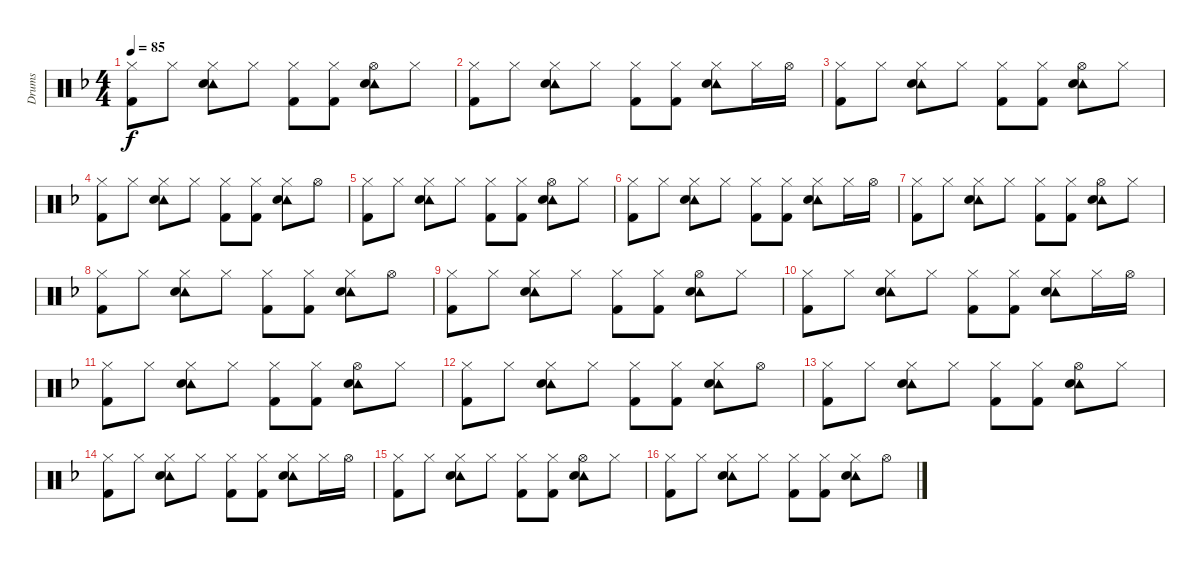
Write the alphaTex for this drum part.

\track ("Drums" "Drums") {instrument percussion}
\staff
\articulation defaults
\ts (4 4)
\tempo 85
\clef neutral
\ks f
("Hi-Hat (closed)" "Kick (hit) 2").8{dy f} "Hi-Hat (closed)".8 ("Tambourine (hit)" "Hi-Hat (closed)" "Snare (hit) 2").8 "Hi-Hat (closed)".8 ("Hi-Hat (closed)" "Kick (hit) 2").8 ("Hi-Hat (closed)" "Kick (hit) 2").8 ("Tambourine (hit)" "Hi-Hat (open)" "Snare (hit) 2").8 "Hi-Hat (closed)".8 |
("Hi-Hat (closed)" "Kick (hit) 2").8 "Hi-Hat (closed)".8 ("Tambourine (hit)" "Hi-Hat (closed)" "Snare (hit) 2").8 "Hi-Hat (closed)".8 ("Hi-Hat (closed)" "Kick (hit) 2").8 ("Hi-Hat (closed)" "Kick (hit) 2").8 ("Tambourine (hit)" "Hi-Hat (closed)" "Snare (hit) 2").8 "Hi-Hat (closed)".16 "Hi-Hat (open)".16 |
("Hi-Hat (closed)" "Kick (hit) 2").8 "Hi-Hat (closed)".8 ("Tambourine (hit)" "Hi-Hat (closed)" "Snare (hit) 2").8 "Hi-Hat (closed)".8 ("Hi-Hat (closed)" "Kick (hit) 2").8 ("Hi-Hat (closed)" "Kick (hit) 2").8 ("Tambourine (hit)" "Hi-Hat (open)" "Snare (hit) 2").8 "Hi-Hat (closed)".8 |
("Hi-Hat (closed)" "Kick (hit) 2").8 "Hi-Hat (closed)".8 ("Tambourine (hit)" "Hi-Hat (closed)" "Snare (hit) 2").8 "Hi-Hat (closed)".8 ("Hi-Hat (closed)" "Kick (hit) 2").8 ("Hi-Hat (closed)" "Kick (hit) 2").8 ("Tambourine (hit)" "Hi-Hat (closed)" "Snare (hit) 2").8 "Hi-Hat (open)".8 |
("Hi-Hat (closed)" "Kick (hit) 2").8 "Hi-Hat (closed)".8 ("Tambourine (hit)" "Hi-Hat (closed)" "Snare (hit) 2").8 "Hi-Hat (closed)".8 ("Hi-Hat (closed)" "Kick (hit) 2").8 ("Hi-Hat (closed)" "Kick (hit) 2").8 ("Tambourine (hit)" "Hi-Hat (open)" "Snare (hit) 2").8 "Hi-Hat (closed)".8 |
("Hi-Hat (closed)" "Kick (hit) 2").8 "Hi-Hat (closed)".8 ("Tambourine (hit)" "Hi-Hat (closed)" "Snare (hit) 2").8 "Hi-Hat (closed)".8 ("Hi-Hat (closed)" "Kick (hit) 2").8 ("Hi-Hat (closed)" "Kick (hit) 2").8 ("Tambourine (hit)" "Hi-Hat (closed)" "Snare (hit) 2").8 "Hi-Hat (closed)".16 "Hi-Hat (open)".16 |
("Hi-Hat (closed)" "Kick (hit) 2").8 "Hi-Hat (closed)".8 ("Tambourine (hit)" "Hi-Hat (closed)" "Snare (hit) 2").8 "Hi-Hat (closed)".8 ("Hi-Hat (closed)" "Kick (hit) 2").8 ("Hi-Hat (closed)" "Kick (hit) 2").8 ("Tambourine (hit)" "Hi-Hat (open)" "Snare (hit) 2").8 "Hi-Hat (closed)".8 |
("Hi-Hat (closed)" "Kick (hit) 2").8 "Hi-Hat (closed)".8 ("Tambourine (hit)" "Hi-Hat (closed)" "Snare (hit) 2").8 "Hi-Hat (closed)".8 ("Hi-Hat (closed)" "Kick (hit) 2").8 ("Hi-Hat (closed)" "Kick (hit) 2").8 ("Tambourine (hit)" "Hi-Hat (closed)" "Snare (hit) 2").8 "Hi-Hat (open)".8 |
("Hi-Hat (closed)" "Kick (hit) 2").8 "Hi-Hat (closed)".8 ("Tambourine (hit)" "Hi-Hat (closed)" "Snare (hit) 2").8 "Hi-Hat (closed)".8 ("Hi-Hat (closed)" "Kick (hit) 2").8 ("Hi-Hat (closed)" "Kick (hit) 2").8 ("Tambourine (hit)" "Hi-Hat (open)" "Snare (hit) 2").8 "Hi-Hat (closed)".8 |
("Hi-Hat (closed)" "Kick (hit) 2").8 "Hi-Hat (closed)".8 ("Tambourine (hit)" "Hi-Hat (closed)" "Snare (hit) 2").8 "Hi-Hat (closed)".8 ("Hi-Hat (closed)" "Kick (hit) 2").8 ("Hi-Hat (closed)" "Kick (hit) 2").8 ("Tambourine (hit)" "Hi-Hat (closed)" "Snare (hit) 2").8 "Hi-Hat (closed)".16 "Hi-Hat (open)".16 |
("Hi-Hat (closed)" "Kick (hit) 2").8 "Hi-Hat (closed)".8 ("Tambourine (hit)" "Hi-Hat (closed)" "Snare (hit) 2").8 "Hi-Hat (closed)".8 ("Hi-Hat (closed)" "Kick (hit) 2").8 ("Hi-Hat (closed)" "Kick (hit) 2").8 ("Tambourine (hit)" "Hi-Hat (open)" "Snare (hit) 2").8 "Hi-Hat (closed)".8 |
("Hi-Hat (closed)" "Kick (hit) 2").8 "Hi-Hat (closed)".8 ("Tambourine (hit)" "Hi-Hat (closed)" "Snare (hit) 2").8 "Hi-Hat (closed)".8 ("Hi-Hat (closed)" "Kick (hit) 2").8 ("Hi-Hat (closed)" "Kick (hit) 2").8 ("Tambourine (hit)" "Hi-Hat (closed)" "Snare (hit) 2").8 "Hi-Hat (open)".8 |
("Hi-Hat (closed)" "Kick (hit) 2").8 "Hi-Hat (closed)".8 ("Tambourine (hit)" "Hi-Hat (closed)" "Snare (hit) 2").8 "Hi-Hat (closed)".8 ("Hi-Hat (closed)" "Kick (hit) 2").8 ("Hi-Hat (closed)" "Kick (hit) 2").8 ("Tambourine (hit)" "Hi-Hat (open)" "Snare (hit) 2").8 "Hi-Hat (closed)".8 |
("Hi-Hat (closed)" "Kick (hit) 2").8 "Hi-Hat (closed)".8 ("Tambourine (hit)" "Hi-Hat (closed)" "Snare (hit) 2").8 "Hi-Hat (closed)".8 ("Hi-Hat (closed)" "Kick (hit) 2").8 ("Hi-Hat (closed)" "Kick (hit) 2").8 ("Tambourine (hit)" "Hi-Hat (closed)" "Snare (hit) 2").8 "Hi-Hat (closed)".16 "Hi-Hat (open)".16 |
("Hi-Hat (closed)" "Kick (hit) 2").8{volume 7} "Hi-Hat (closed)".8 ("Tambourine (hit)" "Hi-Hat (closed)" "Snare (hit) 2").8 "Hi-Hat (closed)".8 ("Hi-Hat (closed)" "Kick (hit) 2").8 ("Hi-Hat (closed)" "Kick (hit) 2").8 ("Tambourine (hit)" "Hi-Hat (open)" "Snare (hit) 2").8 "Hi-Hat (closed)".8 |
("Hi-Hat (closed)" "Kick (hit) 2").8 "Hi-Hat (closed)".8 ("Tambourine (hit)" "Hi-Hat (closed)" "Snare (hit) 2").8 "Hi-Hat (closed)".8 ("Hi-Hat (closed)" "Kick (hit) 2").8 ("Hi-Hat (closed)" "Kick (hit) 2").8 ("Tambourine (hit)" "Hi-Hat (closed)" "Snare (hit) 2").8 "Hi-Hat (open)".8
